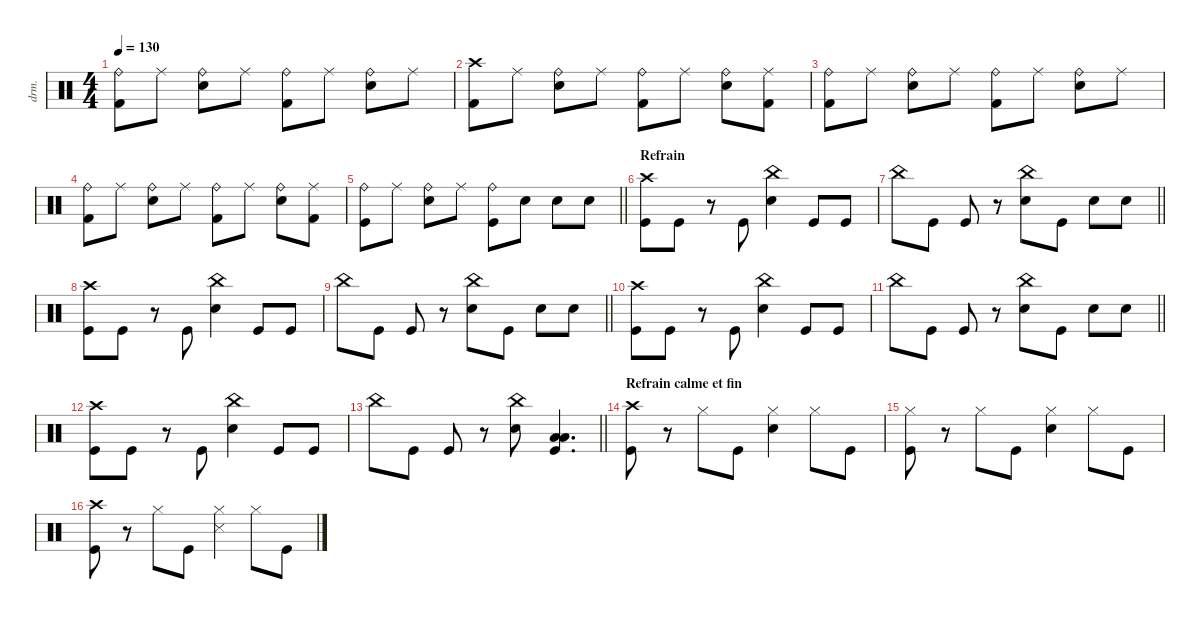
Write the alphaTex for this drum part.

\defaultSystemsLayout 4
\hideDynamics
\bracketExtendMode nobrackets
\otherSystemsTrackNameOrientation horizontal
\track ("Manouche" "drm.") {instrument percussion}
\staff {score}
\articulation defaults
\ts (4 4)
\tempo 130
\clef neutral
\ks c
("Ride (bell)" "Kick (hit) 2").8{dy f beam Down} "Ride (middle)".8{dy mf beam Down} ("Ride (bell)" "Snare (hit) 2").8{dy f beam Down} "Ride (middle)".8{dy mf beam Down} ("Ride (bell)" "Kick (hit) 2").8{dy f beam Down} "Ride (middle)".8{dy mf beam Down} ("Ride (bell)" "Snare (hit) 2").8{dy f beam Down} "Ride (middle)".8{dy mf beam Down} |
("Crash high (hit)" "Kick (hit) 2").8{dy f beam Down} "Ride (middle)".8{dy mf beam Down} ("Ride (bell)" "Snare (hit) 2").8{dy f beam Down} "Ride (middle)".8{dy mf beam Down} ("Ride (bell)" "Kick (hit) 2").8{dy f beam Down} "Ride (middle)".8{dy mf beam Down} ("Ride (bell)" "Snare (hit) 2").8{dy f beam Down} ("Ride (middle)" "Kick (hit) 2").8{dy mf beam Down} |
("Ride (bell)" "Kick (hit) 2").8{dy f beam Down} "Ride (middle)".8{dy mf beam Down} ("Ride (bell)" "Snare (hit) 2").8{dy f beam Down} "Ride (middle)".8{dy mf beam Down} ("Ride (bell)" "Kick (hit) 2").8{dy f beam Down} "Ride (middle)".8{dy mf beam Down} ("Ride (bell)" "Snare (hit) 2").8{dy f beam Down} "Ride (middle)".8{dy mf beam Down} |
("Ride (bell)" "Kick (hit) 2").8{dy f beam Down} "Ride (middle)".8{dy mf beam Down} ("Ride (bell)" "Snare (hit) 2").8{dy f beam Down} "Ride (middle)".8{dy mf beam Down} ("Ride (bell)" "Kick (hit) 2").8{dy f beam Down} "Ride (middle)".8{dy mf beam Down} ("Ride (bell)" "Snare (hit) 2").8{dy f beam Down} ("Ride (middle)" "Kick (hit) 2").8{dy mf beam Down} |
\barLineRight lightlight
("Ride (bell)" "Kick (hit)").8{dy f beam Down} "Ride (middle)".8{dy mf beam Down} ("Ride (bell)" "Snare (hit) 2").8{dy f beam Down} "Ride (middle)".8{dy mf beam Down} ("Ride (bell)" "Kick (hit)").8{dy f beam Down} "Snare (hit) 2".8{beam Down} "Snare (hit) 2".8{beam Down} "Snare (hit) 2".8{beam Down} |
\section ("" "Refrain")
("Crash high (hit)" "Kick (hit)").8{beam Down} "Kick (hit)".8{beam Down} r.8{beam Down} "Kick (hit)".8{beam Up} ("China (hit)" "Snare (hit) 2").4{beam Down} "Kick (hit)".8{beam Up} "Kick (hit)".8{beam Up} |
\barLineRight lightlight "China (hit)".8{beam Down} "Kick (hit)".8{beam Down} "Kick (hit)".8{beam Up}
r.8{beam Up} ("China (hit)" "Snare (hit) 2").8{beam Down} "Kick (hit)".8{beam Down} "Snare (hit) 2".8{beam Down} "Snare (hit) 2".8{beam Down} |
("Crash high (hit)" "Kick (hit)").8{beam Down} "Kick (hit)".8{beam Down} r.8{beam Down} "Kick (hit)".8{beam Up} ("China (hit)" "Snare (hit) 2").4{beam Down} "Kick (hit)".8{beam Up} "Kick (hit)".8{beam Up} |
\barLineRight lightlight "China (hit)".8{beam Down} "Kick (hit)".8{beam Down} "Kick (hit)".8{beam Up}
r.8{beam Up} ("China (hit)" "Snare (hit) 2").8{beam Down} "Kick (hit)".8{beam Down} "Snare (hit) 2".8{beam Down} "Snare (hit) 2".8{beam Down} |
("Crash high (hit)" "Kick (hit)").8{beam Down} "Kick (hit)".8{beam Down} r.8{beam Down} "Kick (hit)".8{beam Up} ("China (hit)" "Snare (hit) 2").4{beam Down} "Kick (hit)".8{beam Up} "Kick (hit)".8{beam Up} |
\barLineRight lightlight "China (hit)".8{beam Down} "Kick (hit)".8{beam Down} "Kick (hit)".8{beam Up}
r.8{beam Up} ("China (hit)" "Snare (hit) 2").8{beam Down} "Kick (hit)".8{beam Down} "Snare (hit) 2".8{beam Down} "Snare (hit) 2".8{beam Down} |
("Crash high (hit)" "Kick (hit)").8{beam Down} "Kick (hit)".8{beam Down} r.8{beam Down} "Kick (hit)".8{beam Up} ("China (hit)" "Snare (hit) 2").4{beam Down} "Kick (hit)".8{beam Up} "Kick (hit)".8{beam Up} |
\barLineRight lightlight "China (hit)".8{beam Down} "Kick (hit)".8{beam Down} "Kick (hit)".8{beam Up}
r.8{beam Up} ("China (hit)" "Snare (hit) 2").8{beam Down} ("Low Tom (hit)" "Kick (hit)" "Low Floor Tom (hit)").4{d dy ff beam Up} |
\section ("" "Refrain calme et fin")
("Crash high (hit)" "Kick (hit)").8{dy f beam Down} r.8{beam Down} "Hi-Hat (closed)".8{beam Down} "Kick (hit)".8{beam Down} ("Hi-Hat (closed)" "Snare (hit) 2").4{beam Down} "Hi-Hat (closed)".8{beam Down} "Kick (hit)".8{beam Down} |
("Hi-Hat (closed)" "Kick (hit)").8{beam Down} r.8{beam Down} "Hi-Hat (closed)".8{beam Down} "Kick (hit)".8{beam Down} ("Hi-Hat (closed)" "Snare (hit) 2").4{beam Down} "Hi-Hat (closed)".8{beam Down} "Kick (hit)".8{beam Down} |
("Crash high (hit)" "Kick (hit)").8{beam Down} r.8{beam Down} "Hi-Hat (closed)".8{beam Down} "Kick (hit)".8{beam Down} ("Hi-Hat (closed)" "Snare (side stick) 3").4{beam Down} "Hi-Hat (closed)".8{beam Down} "Kick (hit)".8{beam Down}
